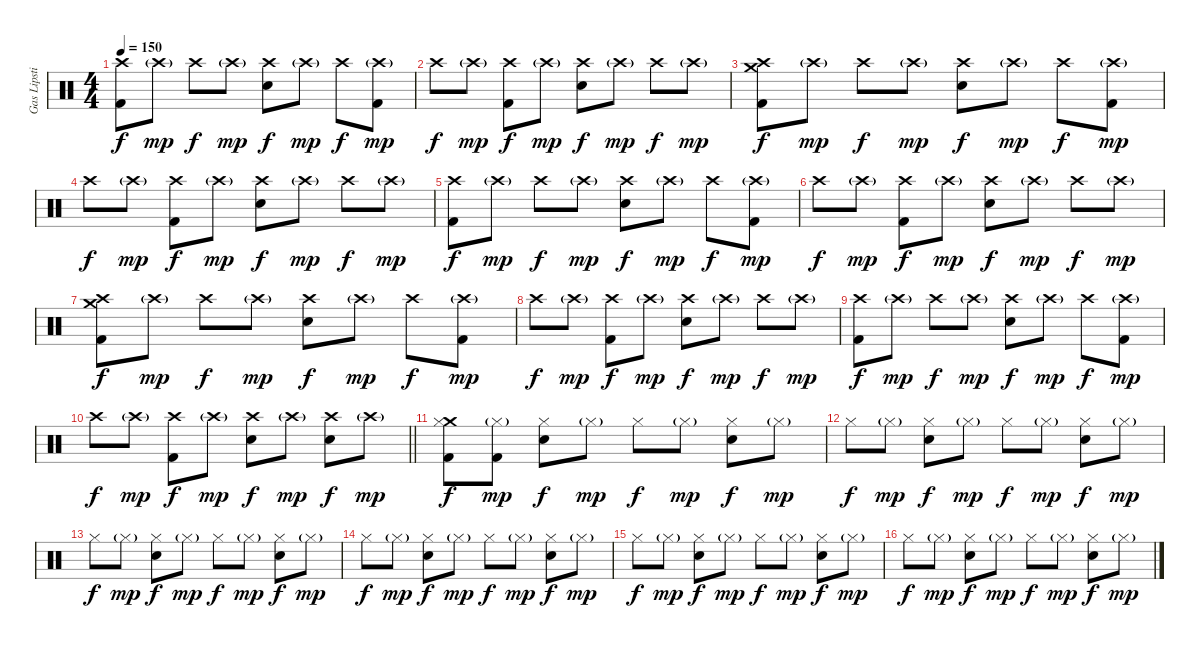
\track ("Gas Lipstick" "Gas Lipsti") {instrument percussion}
\staff {score}
\articulation defaults
\ts (4 4)
\tempo 150
\clef neutral
\ks c
("Crash high (hit)" "Kick (hit) 2").8{dy f} "Crash high (hit)"{g}.8{dy mp} "Crash high (hit)".8{dy f} "Crash high (hit)"{g}.8{dy mp} ("Crash high (hit)" "Snare (hit) 2").8{dy f} "Crash high (hit)"{g}.8{dy mp} "Crash high (hit)".8{dy f} ("Crash high (hit)"{g} "Kick (hit) 2").8{dy mp} |
"Crash high (hit)".8{dy f} "Crash high (hit)"{g}.8{dy mp} ("Crash high (hit)" "Kick (hit) 2").8{dy f} "Crash high (hit)"{g}.8{dy mp} ("Crash high (hit)" "Snare (hit) 2").8{dy f} "Crash high (hit)"{g}.8{dy mp} "Crash high (hit)".8{dy f} "Crash high (hit)"{g}.8{dy mp} |
("Crash medium (hit)" "Crash high (hit)" "Kick (hit) 2").8{dy f} "Crash high (hit)"{g}.8{dy mp} "Crash high (hit)".8{dy f} "Crash high (hit)"{g}.8{dy mp} ("Crash high (hit)" "Snare (hit) 2").8{dy f} "Crash high (hit)"{g}.8{dy mp} "Crash high (hit)".8{dy f} ("Crash high (hit)"{g} "Kick (hit) 2").8{dy mp} |
"Crash high (hit)".8{dy f} "Crash high (hit)"{g}.8{dy mp} ("Crash high (hit)" "Kick (hit) 2").8{dy f} "Crash high (hit)"{g}.8{dy mp} ("Crash high (hit)" "Snare (hit) 2").8{dy f} "Crash high (hit)"{g}.8{dy mp} "Crash high (hit)".8{dy f} "Crash high (hit)"{g}.8{dy mp} |
("Crash high (hit)" "Kick (hit) 2").8{dy f} "Crash high (hit)"{g}.8{dy mp} "Crash high (hit)".8{dy f} "Crash high (hit)"{g}.8{dy mp} ("Crash high (hit)" "Snare (hit) 2").8{dy f} "Crash high (hit)"{g}.8{dy mp} "Crash high (hit)".8{dy f} ("Crash high (hit)"{g} "Kick (hit) 2").8{dy mp} |
"Crash high (hit)".8{dy f} "Crash high (hit)"{g}.8{dy mp} ("Crash high (hit)" "Kick (hit) 2").8{dy f} "Crash high (hit)"{g}.8{dy mp} ("Crash high (hit)" "Snare (hit) 2").8{dy f} "Crash high (hit)"{g}.8{dy mp} "Crash high (hit)".8{dy f} "Crash high (hit)"{g}.8{dy mp} |
("Crash medium (hit)" "Crash high (hit)" "Kick (hit) 2").8{dy f} "Crash high (hit)"{g}.8{dy mp} "Crash high (hit)".8{dy f} "Crash high (hit)"{g}.8{dy mp} ("Crash high (hit)" "Snare (hit) 2").8{dy f} "Crash high (hit)"{g}.8{dy mp} "Crash high (hit)".8{dy f} ("Crash high (hit)"{g} "Kick (hit) 2").8{dy mp} |
"Crash high (hit)".8{dy f} "Crash high (hit)"{g}.8{dy mp} ("Crash high (hit)" "Kick (hit) 2").8{dy f} "Crash high (hit)"{g}.8{dy mp} ("Crash high (hit)" "Snare (hit) 2").8{dy f} "Crash high (hit)"{g}.8{dy mp} "Crash high (hit)".8{dy f} "Crash high (hit)"{g}.8{dy mp} |
("Crash high (hit)" "Kick (hit) 2").8{dy f} "Crash high (hit)"{g}.8{dy mp} "Crash high (hit)".8{dy f} "Crash high (hit)"{g}.8{dy mp} ("Crash high (hit)" "Snare (hit) 2").8{dy f} "Crash high (hit)"{g}.8{dy mp} "Crash high (hit)".8{dy f} ("Crash high (hit)"{g} "Kick (hit) 2").8{dy mp} |
\barLineRight lightlight "Crash high (hit)".8{dy f} "Crash high (hit)"{g}.8{dy mp}
("Crash high (hit)" "Kick (hit) 2").8{dy f} "Crash high (hit)"{g}.8{dy mp} ("Crash high (hit)" "Snare (hit) 2").8{dy f} "Crash high (hit)"{g}.8{dy mp} ("Crash high (hit)" "Snare (hit) 2").8{dy f} "Crash high (hit)"{g}.8{dy mp} |
("Crash medium (hit)" "Hi-Hat (closed)" "Kick (hit) 2").8{dy f} ("Hi-Hat (closed)"{g} "Kick (hit) 2").8{dy mp} ("Hi-Hat (closed)" "Snare (hit) 2").8{dy f} "Hi-Hat (closed)"{g}.8{dy mp} "Hi-Hat (closed)".8{dy f} "Hi-Hat (closed)"{g}.8{dy mp} ("Hi-Hat (closed)" "Snare (hit) 2").8{dy f} "Hi-Hat (closed)"{g}.8{dy mp} |
"Hi-Hat (closed)".8{dy f} "Hi-Hat (closed)"{g}.8{dy mp} ("Hi-Hat (closed)" "Snare (hit) 2").8{dy f} "Hi-Hat (closed)"{g}.8{dy mp} "Hi-Hat (closed)".8{dy f} "Hi-Hat (closed)"{g}.8{dy mp} ("Hi-Hat (closed)" "Snare (hit) 2").8{dy f} "Hi-Hat (closed)"{g}.8{dy mp} |
"Hi-Hat (closed)".8{dy f} "Hi-Hat (closed)"{g}.8{dy mp} ("Hi-Hat (closed)" "Snare (hit) 2").8{dy f} "Hi-Hat (closed)"{g}.8{dy mp} "Hi-Hat (closed)".8{dy f} "Hi-Hat (closed)"{g}.8{dy mp} ("Hi-Hat (closed)" "Snare (hit) 2").8{dy f} "Hi-Hat (closed)"{g}.8{dy mp} |
"Hi-Hat (closed)".8{dy f} "Hi-Hat (closed)"{g}.8{dy mp} ("Hi-Hat (closed)" "Snare (hit) 2").8{dy f} "Hi-Hat (closed)"{g}.8{dy mp} "Hi-Hat (closed)".8{dy f} "Hi-Hat (closed)"{g}.8{dy mp} ("Hi-Hat (closed)" "Snare (hit) 2").8{dy f} "Hi-Hat (closed)"{g}.8{dy mp} |
"Hi-Hat (closed)".8{dy f} "Hi-Hat (closed)"{g}.8{dy mp} ("Hi-Hat (closed)" "Snare (hit) 2").8{dy f} "Hi-Hat (closed)"{g}.8{dy mp} "Hi-Hat (closed)".8{dy f} "Hi-Hat (closed)"{g}.8{dy mp} ("Hi-Hat (closed)" "Snare (hit) 2").8{dy f} "Hi-Hat (closed)"{g}.8{dy mp} |
"Hi-Hat (closed)".8{dy f} "Hi-Hat (closed)"{g}.8{dy mp} ("Hi-Hat (closed)" "Snare (hit) 2").8{dy f} "Hi-Hat (closed)"{g}.8{dy mp} "Hi-Hat (closed)".8{dy f} "Hi-Hat (closed)"{g}.8{dy mp} ("Hi-Hat (closed)" "Snare (hit) 2").8{dy f} "Hi-Hat (closed)"{g}.8{dy mp}
